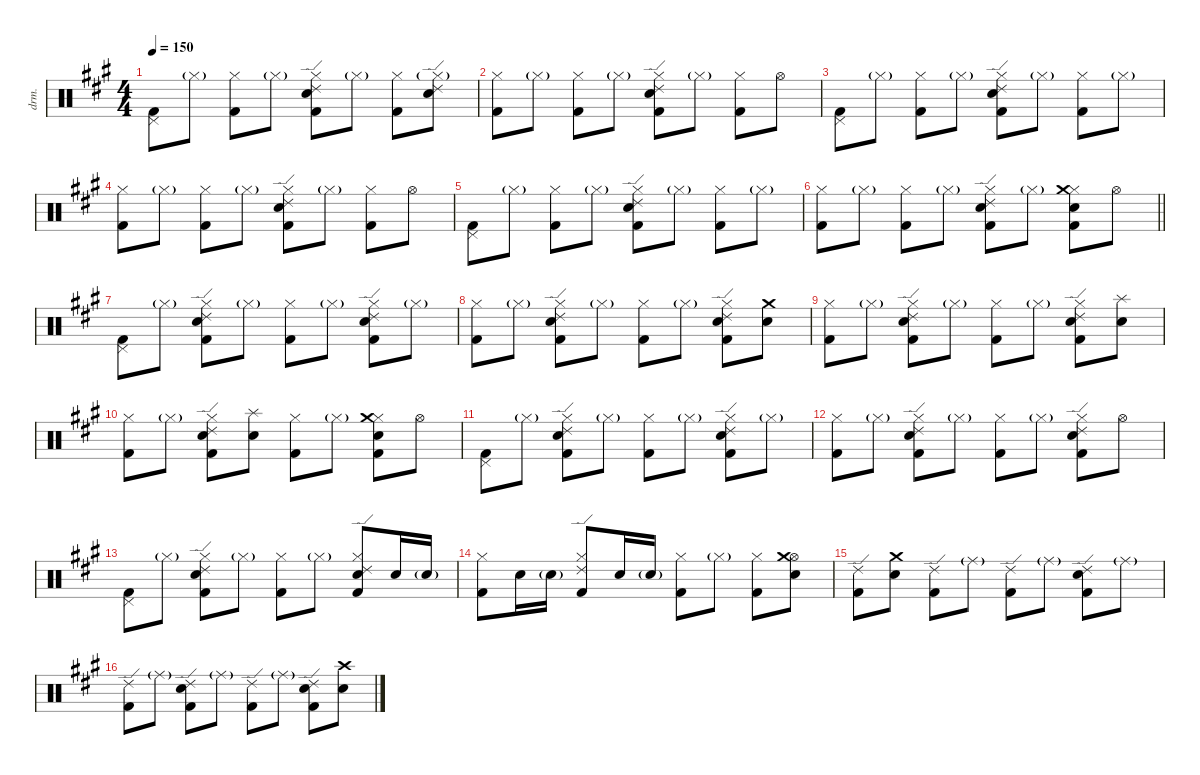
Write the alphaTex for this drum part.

\defaultSystemsLayout 4
\hideDynamics
\bracketExtendMode nobrackets
\otherSystemsTrackNameOrientation horizontal
\track ("Drums" "drm.") {instrument percussion}
\staff {score}
\articulation defaults
\ts (4 4)
\tempo 150
\clef neutral
\ks a
("Kick (hit) 2"{acc forcenatural} "Pedal Hi-Hat (hit)"{acc forcenatural}).8{dy fff} "Hi-Hat (closed)"{g acc forcenatural}.8{dy p} ("Kick (hit) 2"{acc forcenatural} "Hi-Hat (closed)"{acc forcenatural}).8{dy fff} "Hi-Hat (closed)"{g acc forcenatural}.8{dy p} ("Kick (hit) 2"{acc forcenatural} "Snare (hit) 2"{acc forcenatural} "Hi-Hat (closed)"{acc forcenatural} "Ride (edge) 2"{acc forcenatural}).8{dy fff} "Hi-Hat (closed)"{g acc forcenatural}.8{dy p} ("Kick (hit) 2"{acc forcenatural} "Hi-Hat (closed)"{acc forcenatural}).8{dy fff} ("Snare (hit) 2"{acc forcenatural} "Hi-Hat (closed)"{g acc forcenatural} "Ride (edge) 2"{acc forcenatural}).8{dy mf} |
("Kick (hit) 2"{acc forcenatural} "Hi-Hat (closed)"{acc forcenatural}).8{dy fff} "Hi-Hat (closed)"{g acc forcenatural}.8{dy p} ("Kick (hit) 2"{acc forcenatural} "Hi-Hat (closed)"{acc forcenatural}).8{dy fff} "Hi-Hat (closed)"{g acc forcenatural}.8{dy p} ("Kick (hit) 2"{acc forcenatural} "Snare (hit) 2"{acc forcenatural} "Hi-Hat (closed)"{acc forcenatural} "Ride (edge) 2"{acc forcenatural}).8{dy fff} "Hi-Hat (closed)"{g acc forcenatural}.8{dy p} ("Kick (hit) 2"{acc forcenatural} "Hi-Hat (closed)"{acc forcenatural}).8{dy fff} "Hi-Hat (open)"{acc forcenatural}.8{dy mp} |
("Kick (hit) 2"{acc forcenatural} "Pedal Hi-Hat (hit)"{acc forcenatural}).8{dy fff} "Hi-Hat (closed)"{g acc forcenatural}.8{dy p} ("Kick (hit) 2"{acc forcenatural} "Hi-Hat (closed)"{acc forcenatural}).8{dy fff} "Hi-Hat (closed)"{g acc forcenatural}.8{dy p} ("Kick (hit) 2"{acc forcenatural} "Snare (hit) 2"{acc forcenatural} "Hi-Hat (closed)"{acc forcenatural} "Ride (edge) 2"{acc forcenatural}).8{dy fff} "Hi-Hat (closed)"{g acc forcenatural}.8{dy p} ("Kick (hit) 2"{acc forcenatural} "Hi-Hat (closed)"{acc forcenatural}).8{dy fff} "Hi-Hat (closed)"{g acc forcenatural}.8{dy p} |
("Kick (hit) 2"{acc forcenatural} "Hi-Hat (closed)"{acc forcenatural}).8{dy fff} "Hi-Hat (closed)"{g acc forcenatural}.8{dy p} ("Kick (hit) 2"{acc forcenatural} "Hi-Hat (closed)"{acc forcenatural}).8{dy fff} "Hi-Hat (closed)"{g acc forcenatural}.8{dy p} ("Kick (hit) 2"{acc forcenatural} "Snare (hit) 2"{acc forcenatural} "Hi-Hat (closed)"{acc forcenatural} "Ride (edge) 2"{acc forcenatural}).8{dy fff} "Hi-Hat (closed)"{g acc forcenatural}.8{dy p} ("Kick (hit) 2"{acc forcenatural} "Hi-Hat (closed)"{acc forcenatural}).8{dy fff} "Hi-Hat (open)"{acc forcenatural}.8{dy mp} |
("Kick (hit) 2"{acc forcenatural} "Pedal Hi-Hat (hit)"{acc forcenatural}).8{dy fff} "Hi-Hat (closed)"{g acc forcenatural}.8{dy p} ("Kick (hit) 2"{acc forcenatural} "Hi-Hat (closed)"{acc forcenatural}).8{dy fff} "Hi-Hat (closed)"{g acc forcenatural}.8{dy p} ("Kick (hit) 2"{acc forcenatural} "Snare (hit) 2"{acc forcenatural} "Hi-Hat (closed)"{acc forcenatural} "Ride (edge) 2"{acc forcenatural}).8{dy fff} "Hi-Hat (closed)"{g acc forcenatural}.8{dy p} ("Kick (hit) 2"{acc forcenatural} "Hi-Hat (closed)"{acc forcenatural}).8{dy fff} "Hi-Hat (closed)"{g acc forcenatural}.8{dy p} |
\barLineRight lightlight
("Kick (hit) 2"{acc forcenatural} "Hi-Hat (closed)"{acc forcenatural}).8{dy fff} "Hi-Hat (closed)"{g acc forcenatural}.8{dy p} ("Kick (hit) 2"{acc forcenatural} "Hi-Hat (closed)"{acc forcenatural}).8{dy fff} "Hi-Hat (closed)"{g acc forcenatural}.8{dy p} ("Kick (hit) 2"{acc forcenatural} "Snare (hit) 2"{acc forcenatural} "Hi-Hat (closed)"{acc forcenatural} "Ride (edge) 2"{acc forcenatural}).8{dy fff} "Hi-Hat (closed)"{g acc forcenatural}.8{dy p} ("Kick (hit) 2"{acc forcenatural} "Snare (hit) 2"{acc forcenatural} "Hi-Hat (closed)"{acc forcenatural} "Crash medium (hit)"{acc forcenatural}).8{dy fff} "Hi-Hat (open)"{acc forcenatural}.8{dy mp} |
("Kick (hit) 2"{acc forcenatural} "Pedal Hi-Hat (hit)"{acc forcenatural}).8{dy fff} "Hi-Hat (closed)"{g acc forcenatural}.8{dy p} ("Kick (hit) 2"{acc forcenatural} "Snare (hit) 2"{acc forcenatural} "Hi-Hat (closed)"{acc forcenatural} "Ride (edge) 2"{acc forcenatural}).8{dy fff} "Hi-Hat (closed)"{g acc forcenatural}.8{dy p} ("Kick (hit) 2"{acc forcenatural} "Hi-Hat (closed)"{acc forcenatural}).8{dy fff} "Hi-Hat (closed)"{g acc forcenatural}.8{dy p} ("Kick (hit) 2"{acc forcenatural} "Snare (hit) 2"{acc forcenatural} "Hi-Hat (closed)"{acc forcenatural} "Ride (edge) 2"{acc forcenatural}).8{dy fff} "Hi-Hat (closed)"{g acc forcenatural}.8{dy p} |
("Kick (hit) 2"{acc forcenatural} "Hi-Hat (closed)"{acc forcenatural}).8{dy fff} "Hi-Hat (closed)"{g acc forcenatural}.8{dy p} ("Kick (hit) 2"{acc forcenatural} "Snare (hit) 2"{acc forcenatural} "Hi-Hat (closed)"{acc forcenatural} "Ride (edge) 2"{acc forcenatural}).8{dy fff} "Hi-Hat (closed)"{g acc forcenatural}.8{dy p} ("Kick (hit) 2"{acc forcenatural} "Hi-Hat (closed)"{acc forcenatural}).8{dy fff} "Hi-Hat (closed)"{g acc forcenatural}.8{dy p} ("Kick (hit) 2"{acc forcenatural} "Snare (hit) 2"{acc forcenatural} "Hi-Hat (closed)"{acc forcenatural} "Ride (edge) 2"{acc forcenatural}).8{dy fff} ("Snare (hit) 2"{acc forcenatural} "Crash medium (hit)"{acc forcenatural}).8 |
("Kick (hit) 2"{acc forcenatural} "Hi-Hat (closed)"{acc forcenatural}).8 "Hi-Hat (closed)"{g acc forcenatural}.8{dy p} ("Kick (hit) 2"{acc forcenatural} "Snare (hit) 2"{acc forcenatural} "Hi-Hat (closed)"{acc forcenatural} "Ride (edge) 2"{acc forcenatural}).8{dy fff} "Hi-Hat (closed)"{g acc forcenatural}.8{dy p} ("Kick (hit) 2"{acc forcenatural} "Hi-Hat (closed)"{acc forcenatural}).8{dy fff} "Hi-Hat (closed)"{g acc forcenatural}.8{dy p} ("Kick (hit) 2"{acc forcenatural} "Snare (hit) 2"{acc forcenatural} "Hi-Hat (closed)"{acc forcenatural} "Ride (edge) 2"{acc forcenatural}).8{dy fff} ("Snare (hit) 2"{acc forcenatural} "Splash (hit)"{acc forcenatural}).8 |
("Kick (hit) 2"{acc forcenatural} "Hi-Hat (closed)"{acc forcenatural}).8 "Hi-Hat (closed)"{g acc forcenatural}.8{dy p} ("Kick (hit) 2"{acc forcenatural} "Snare (hit) 2"{acc forcenatural} "Hi-Hat (closed)"{acc forcenatural} "Ride (edge) 2"{acc forcenatural}).8{dy fff} ("Snare (hit) 2"{acc forcenatural} "Splash (hit)"{acc forcenatural}).8 ("Kick (hit) 2"{acc forcenatural} "Hi-Hat (closed)"{acc forcenatural}).8 "Hi-Hat (closed)"{g acc forcenatural}.8{dy p} ("Kick (hit) 2"{acc forcenatural} "Snare (hit) 2"{acc forcenatural} "Hi-Hat (closed)"{acc forcenatural} "Crash medium (hit)"{acc forcenatural}).8{dy fff} "Hi-Hat (open)"{acc forcenatural}.8{dy mp} |
("Kick (hit) 2"{acc forcenatural} "Pedal Hi-Hat (hit)"{acc forcenatural}).8{dy fff} "Hi-Hat (closed)"{g acc forcenatural}.8{dy p} ("Kick (hit) 2"{acc forcenatural} "Snare (hit) 2"{acc forcenatural} "Hi-Hat (closed)"{acc forcenatural} "Ride (edge) 2"{acc forcenatural}).8{dy fff} "Hi-Hat (closed)"{g acc forcenatural}.8{dy p} ("Kick (hit) 2"{acc forcenatural} "Hi-Hat (closed)"{acc forcenatural}).8{dy fff} "Hi-Hat (closed)"{g acc forcenatural}.8{dy p} ("Kick (hit) 2"{acc forcenatural} "Snare (hit) 2"{acc forcenatural} "Hi-Hat (closed)"{acc forcenatural} "Ride (edge) 2"{acc forcenatural}).8{dy fff} "Hi-Hat (closed)"{g acc forcenatural}.8{dy p} |
("Kick (hit) 2"{acc forcenatural} "Hi-Hat (closed)"{acc forcenatural}).8{dy fff} "Hi-Hat (closed)"{g acc forcenatural}.8{dy p} ("Kick (hit) 2"{acc forcenatural} "Snare (hit) 2"{acc forcenatural} "Hi-Hat (closed)"{acc forcenatural} "Ride (edge) 2"{acc forcenatural}).8{dy fff} "Hi-Hat (closed)"{g acc forcenatural}.8{dy p} ("Kick (hit) 2"{acc forcenatural} "Hi-Hat (closed)"{acc forcenatural}).8{dy fff} "Hi-Hat (closed)"{g acc forcenatural}.8{dy p} ("Kick (hit) 2"{acc forcenatural} "Snare (hit) 2"{acc forcenatural} "Hi-Hat (closed)"{acc forcenatural} "Ride (edge) 2"{acc forcenatural}).8{dy fff} "Hi-Hat (open)"{acc forcenatural}.8{dy mp} |
("Kick (hit) 2"{acc forcenatural} "Pedal Hi-Hat (hit)"{acc forcenatural}).8{dy fff} "Hi-Hat (closed)"{g acc forcenatural}.8{dy p} ("Kick (hit) 2"{acc forcenatural} "Snare (hit) 2"{acc forcenatural} "Hi-Hat (closed)"{acc forcenatural} "Ride (edge) 2"{acc forcenatural}).8{dy fff} "Hi-Hat (closed)"{g acc forcenatural}.8{dy p} ("Kick (hit) 2"{acc forcenatural} "Hi-Hat (closed)"{acc forcenatural}).8{dy fff} "Hi-Hat (closed)"{g acc forcenatural}.8{dy p} ("Kick (hit) 2"{acc forcenatural} "Snare (hit) 2"{acc forcenatural} "Hi-Hat (closed)"{acc forcenatural} "Ride (edge) 2"{acc forcenatural}).8{dy fff} "Snare (hit) 2"{acc forcenatural}.16{dy f} "Snare (hit) 2"{g acc forcenatural}.16{dy mp} |
("Kick (hit) 2"{acc forcenatural} "Hi-Hat (closed)"{acc forcenatural}).8{dy fff} "Snare (hit) 2"{acc forcenatural}.16{dy f} "Snare (hit) 2"{g acc forcenatural}.16{dy mp} ("Kick (hit) 2"{acc forcenatural} "Hi-Hat (closed)"{acc forcenatural} "Ride (edge) 2"{acc forcenatural}).8{dy fff} "Snare (hit) 2"{acc forcenatural}.16{dy f} "Snare (hit) 2"{g acc forcenatural}.16{dy mp} ("Kick (hit) 2"{acc forcenatural} "Hi-Hat (closed)"{acc forcenatural}).8{dy fff} "Hi-Hat (closed)"{g acc forcenatural}.8{dy p} ("Kick (hit) 2"{acc forcenatural} "Hi-Hat (closed)"{acc forcenatural}).8{dy fff} ("Snare (hit) 2"{acc forcenatural} "Hi-Hat (open)"{acc forcenatural} "Crash medium (hit)"{acc forcenatural}).8 |
("Kick (hit) 2"{acc forcenatural} "Ride (edge) 2"{acc forcenatural}).8 ("Snare (hit) 2"{acc forcenatural} "Crash medium (hit)"{acc forcenatural}).8 ("Kick (hit) 2"{acc forcenatural} "Ride (edge) 2"{acc forcenatural}).8 "Ride (middle)"{g acc forcenatural}.8{dy p} ("Kick (hit) 2"{acc forcenatural} "Ride (edge) 2"{acc forcenatural}).8{dy fff} "Ride (middle)"{g acc forcenatural}.8{dy p} ("Kick (hit) 2"{acc forcenatural} "Snare (hit) 2"{acc forcenatural} "Ride (edge) 2"{acc forcenatural}).8{dy fff} "Ride (middle)"{g acc forcenatural}.8{dy p} |
("Kick (hit) 2"{acc forcenatural} "Ride (edge) 2"{acc forcenatural}).8{dy fff} "Ride (middle)"{g acc forcenatural}.8{dy p} ("Kick (hit) 2"{acc forcenatural} "Snare (hit) 2"{acc forcenatural} "Ride (edge) 2"{acc forcenatural}).8{dy fff} "Ride (middle)"{g acc forcenatural}.8{dy p} ("Kick (hit) 2"{acc forcenatural} "Ride (edge) 2"{acc forcenatural}).8{dy fff} "Ride (middle)"{g acc forcenatural}.8{dy p} ("Kick (hit) 2"{acc forcenatural} "Snare (hit) 2"{acc forcenatural} "Ride (edge) 2"{acc forcenatural}).8{dy fff} ("Snare (hit) 2"{acc forcenatural} "Crash high (hit)"{acc forcenatural}).8
